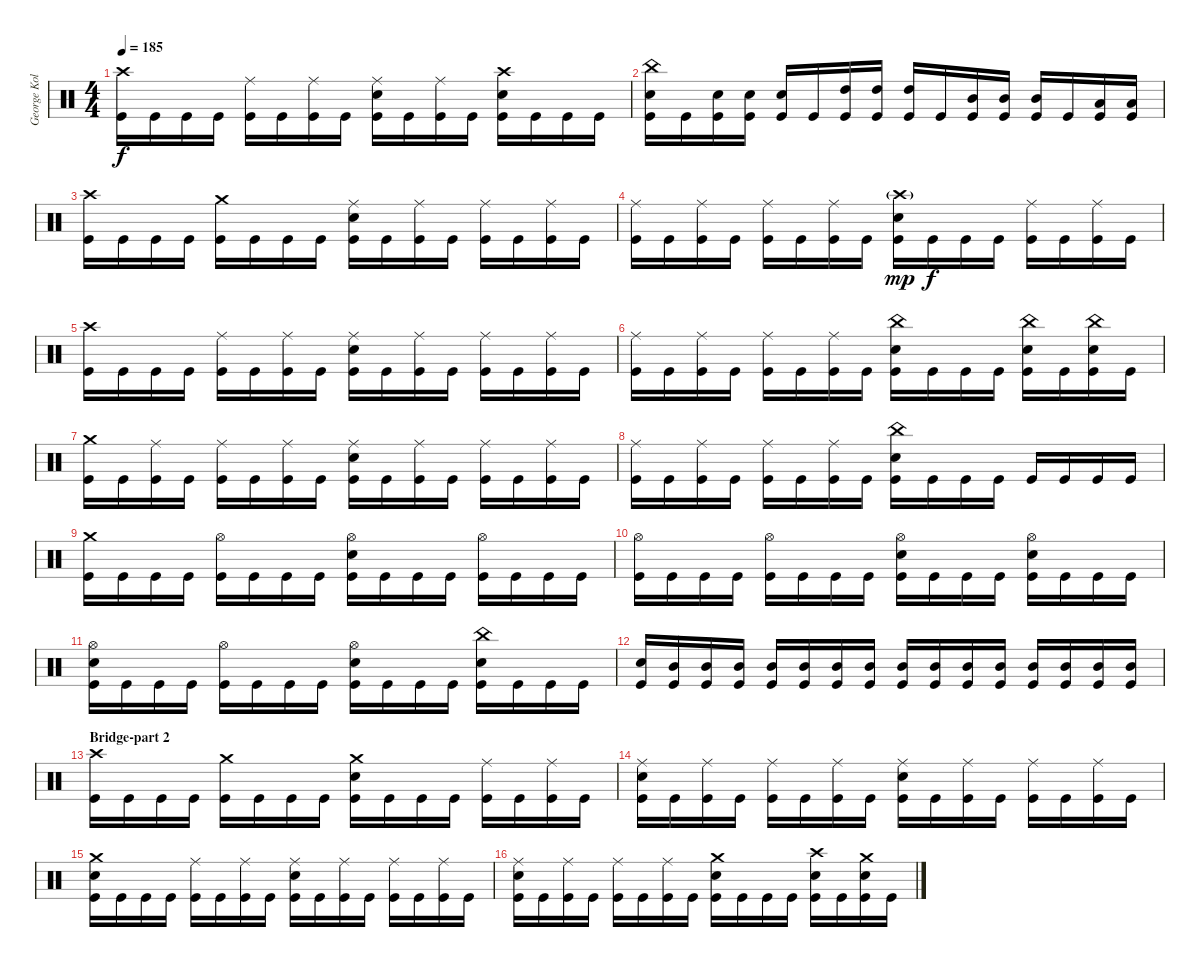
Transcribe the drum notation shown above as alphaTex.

\track ("George Kollias" "George Kol") {instrument percussion}
\staff {score}
\articulation defaults
\ts (4 4)
\tempo 185
\clef neutral
\ks c
("Crash high (hit)" "Kick (hit)").16{dy f} "Kick (hit)".16 "Kick (hit)".16 "Kick (hit)".16 ("Ride (middle)" "Kick (hit)").16 "Kick (hit)".16 ("Ride (middle)" "Kick (hit)").16 "Kick (hit)".16 ("Ride (middle)" "Snare (hit) 2" "Kick (hit)").16 "Kick (hit)".16 ("Ride (middle)" "Kick (hit)").16 "Kick (hit)".16 ("Crash high (hit)" "Snare (hit) 2" "Kick (hit)").16 "Kick (hit)".16 "Kick (hit)".16 "Kick (hit)".16 |
("China (hit)" "Snare (hit) 2" "Kick (hit)").16 "Kick (hit)".16 ("Snare (hit) 2" "Kick (hit)").16 ("Snare (hit) 2" "Kick (hit)").16 ("Snare (hit) 2" "Kick (hit)").16 "Kick (hit)".16 ("High Tom (hit)" "Kick (hit)").16 ("High Tom (hit)" "Kick (hit)").16 ("High Tom (hit)" "Kick (hit)").16 "Kick (hit)".16 ("Mid Tom (hit)" "Kick (hit)").16 ("Mid Tom (hit)" "Kick (hit)").16 ("Mid Tom (hit)" "Kick (hit)").16 "Kick (hit)".16 ("Low Tom (hit)" "Kick (hit)").16 ("Low Tom (hit)" "Kick (hit)").16 |
("Crash high (hit)" "Kick (hit)").16 "Kick (hit)".16 "Kick (hit)".16 "Kick (hit)".16 ("Crash medium (hit)" "Kick (hit)").16 "Kick (hit)".16 "Kick (hit)".16 "Kick (hit)".16 ("Ride (middle)" "Snare (hit) 2" "Kick (hit)").16 "Kick (hit)".16 ("Ride (middle)" "Kick (hit)").16 "Kick (hit)".16 ("Ride (middle)" "Kick (hit)").16 "Kick (hit)".16 ("Ride (middle)" "Kick (hit)").16 "Kick (hit)".16 |
("Ride (middle)" "Kick (hit)").16 "Kick (hit)".16 ("Ride (middle)" "Kick (hit)").16 "Kick (hit)".16 ("Ride (middle)" "Kick (hit)").16 "Kick (hit)".16 ("Ride (middle)" "Kick (hit)").16 "Kick (hit)".16 ("Crash high (hit)"{g} "Snare (hit) 2" "Kick (hit)").16{dy mp} "Kick (hit)".16{dy f} "Kick (hit)".16 "Kick (hit)".16 ("Ride (middle)" "Kick (hit)").16 "Kick (hit)".16 ("Ride (middle)" "Kick (hit)").16 "Kick (hit)".16 |
("Crash high (hit)" "Kick (hit)").16 "Kick (hit)".16 "Kick (hit)".16 "Kick (hit)".16 ("Ride (middle)" "Kick (hit)").16 "Kick (hit)".16 ("Ride (middle)" "Kick (hit)").16 "Kick (hit)".16 ("Ride (middle)" "Snare (hit) 2" "Kick (hit)").16 "Kick (hit)".16 ("Ride (middle)" "Kick (hit)").16 "Kick (hit)".16 ("Ride (middle)" "Kick (hit)").16 "Kick (hit)".16 ("Ride (middle)" "Kick (hit)").16 "Kick (hit)".16 |
("Ride (middle)" "Kick (hit)").16 "Kick (hit)".16 ("Ride (middle)" "Kick (hit)").16 "Kick (hit)".16 ("Ride (middle)" "Kick (hit)").16 "Kick (hit)".16 ("Ride (middle)" "Kick (hit)").16 "Kick (hit)".16 ("China (hit)" "Snare (hit) 2" "Kick (hit)").16 "Kick (hit)".16 "Kick (hit)".16 "Kick (hit)".16 ("China (hit)" "Snare (hit) 2" "Kick (hit)").16 "Kick (hit)".16 ("China (hit)" "Snare (hit) 2" "Kick (hit)").16 "Kick (hit)".16 |
("Crash medium (hit)" "Kick (hit)").16 "Kick (hit)".16 ("Ride (middle)" "Kick (hit)").16 "Kick (hit)".16 ("Ride (middle)" "Kick (hit)").16 "Kick (hit)".16 ("Ride (middle)" "Kick (hit)").16 "Kick (hit)".16 ("Ride (middle)" "Snare (hit) 2" "Kick (hit)").16 "Kick (hit)".16 ("Ride (middle)" "Kick (hit)").16 "Kick (hit)".16 ("Ride (middle)" "Kick (hit)").16 "Kick (hit)".16 ("Ride (middle)" "Kick (hit)").16 "Kick (hit)".16 |
("Ride (middle)" "Kick (hit)").16 "Kick (hit)".16 ("Ride (middle)" "Kick (hit)").16 "Kick (hit)".16 ("Ride (middle)" "Kick (hit)").16 "Kick (hit)".16 ("Ride (middle)" "Kick (hit)").16 "Kick (hit)".16 ("China (hit)" "Snare (hit) 2" "Kick (hit)").16 "Kick (hit)".16 "Kick (hit)".16 "Kick (hit)".16 "Kick (hit)".16 "Kick (hit)".16 "Kick (hit)".16 "Kick (hit)".16 |
("Crash medium (hit)" "Kick (hit)").16 "Kick (hit)".16 "Kick (hit)".16 "Kick (hit)".16 ("Hi-Hat (open)" "Kick (hit)").16 "Kick (hit)".16 "Kick (hit)".16 "Kick (hit)".16 ("Hi-Hat (open)" "Snare (hit) 2" "Kick (hit)").16 "Kick (hit)".16 "Kick (hit)".16 "Kick (hit)".16 ("Hi-Hat (open)" "Kick (hit)").16 "Kick (hit)".16 "Kick (hit)".16 "Kick (hit)".16 |
("Hi-Hat (open)" "Kick (hit)").16 "Kick (hit)".16 "Kick (hit)".16 "Kick (hit)".16 ("Hi-Hat (open)" "Kick (hit)").16 "Kick (hit)".16 "Kick (hit)".16 "Kick (hit)".16 ("Hi-Hat (open)" "Snare (hit) 2" "Kick (hit)").16 "Kick (hit)".16 "Kick (hit)".16 "Kick (hit)".16 ("Hi-Hat (open)" "Snare (hit) 2" "Kick (hit)").16 "Kick (hit)".16 "Kick (hit)".16 "Kick (hit)".16 |
("Hi-Hat (open)" "Snare (hit) 2" "Kick (hit)").16 "Kick (hit)".16 "Kick (hit)".16 "Kick (hit)".16 ("Hi-Hat (open)" "Kick (hit)").16 "Kick (hit)".16 "Kick (hit)".16 "Kick (hit)".16 ("Hi-Hat (open)" "Snare (hit) 2" "Kick (hit)").16 "Kick (hit)".16 "Kick (hit)".16 "Kick (hit)".16 ("China (hit)" "Snare (hit) 2" "Kick (hit)").16 "Kick (hit)".16 "Kick (hit)".16 "Kick (hit)".16 |
("Snare (hit) 2" "Kick (hit)").16 ("Mid Tom (hit)" "Kick (hit)").16 ("Mid Tom (hit)" "Kick (hit)").16 ("Mid Tom (hit)" "Kick (hit)").16 ("Mid Tom (hit)" "Kick (hit)").16 ("Mid Tom (hit)" "Kick (hit)").16 ("Mid Tom (hit)" "Kick (hit)").16 ("Mid Tom (hit)" "Kick (hit)").16 ("Mid Tom (hit)" "Kick (hit)").16 ("Mid Tom (hit)" "Kick (hit)").16 ("Mid Tom (hit)" "Kick (hit)").16 ("Mid Tom (hit)" "Kick (hit)").16 ("Mid Tom (hit)" "Kick (hit)").16 ("Mid Tom (hit)" "Kick (hit)").16 ("Mid Tom (hit)" "Kick (hit)").16 ("Mid Tom (hit)" "Kick (hit)").16 |
\section ("" "Bridge-part 2")
("Crash high (hit)" "Kick (hit)").16 "Kick (hit)".16 "Kick (hit)".16 "Kick (hit)".16 ("Crash medium (hit)" "Kick (hit)").16 "Kick (hit)".16 "Kick (hit)".16 "Kick (hit)".16 ("Crash medium (hit)" "Snare (hit) 2" "Kick (hit)").16 "Kick (hit)".16 "Kick (hit)".16 "Kick (hit)".16 ("Ride (middle)" "Kick (hit)").16 "Kick (hit)".16 ("Ride (middle)" "Kick (hit)").16 "Kick (hit)".16 |
("Ride (middle)" "Snare (hit) 2" "Kick (hit)").16 "Kick (hit)".16 ("Ride (middle)" "Kick (hit)").16 "Kick (hit)".16 ("Ride (middle)" "Kick (hit)").16 "Kick (hit)".16 ("Ride (middle)" "Kick (hit)").16 "Kick (hit)".16 ("Ride (middle)" "Snare (hit) 2" "Kick (hit)").16 "Kick (hit)".16 ("Ride (middle)" "Kick (hit)").16 "Kick (hit)".16 ("Ride (middle)" "Kick (hit)").16 "Kick (hit)".16 ("Ride (middle)" "Kick (hit)").16 "Kick (hit)".16 |
("Crash medium (hit)" "Snare (hit) 2" "Kick (hit)").16 "Kick (hit)".16 "Kick (hit)".16 "Kick (hit)".16 ("Ride (middle)" "Kick (hit)").16 "Kick (hit)".16 ("Ride (middle)" "Kick (hit)").16 "Kick (hit)".16 ("Ride (middle)" "Snare (hit) 2" "Kick (hit)").16 "Kick (hit)".16 ("Ride (middle)" "Kick (hit)").16 "Kick (hit)".16 ("Ride (middle)" "Kick (hit)").16 "Kick (hit)".16 ("Ride (middle)" "Kick (hit)").16 "Kick (hit)".16 |
("Ride (middle)" "Snare (hit) 2" "Kick (hit)").16 "Kick (hit)".16 ("Ride (middle)" "Kick (hit)").16 "Kick (hit)".16 ("Ride (middle)" "Kick (hit)").16 "Kick (hit)".16 ("Ride (middle)" "Kick (hit)").16 "Kick (hit)".16 ("Crash medium (hit)" "Snare (hit) 2" "Kick (hit)").16 "Kick (hit)".16 "Kick (hit)".16 "Kick (hit)".16 ("Crash high (hit)" "Snare (hit) 2" "Kick (hit)").16 "Kick (hit)".16 ("Crash medium (hit)" "Snare (hit) 2" "Kick (hit)").16 "Kick (hit)".16
